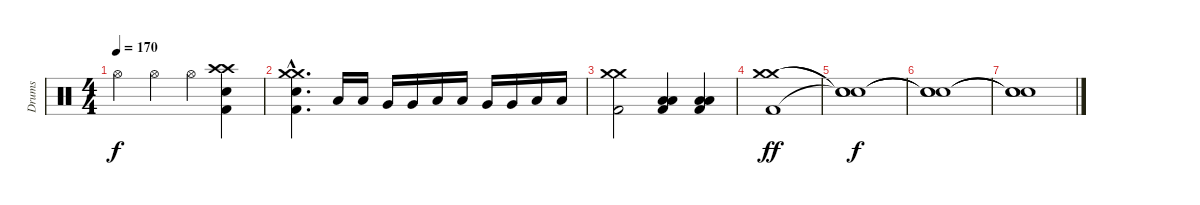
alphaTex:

\track ("Drums" "Drums") {instrument percussion}
\staff {score}
\articulation defaults
\ts (4 4)
\tempo 170
\clef neutral
\ks c "Hi-Hat (open)".4{dy f} "Hi-Hat (open)".4 "Hi-Hat (open)".4
("Crash high (hit)" "Crash high (hit)" "Snare (hit) 2" "Kick (hit) 2").4 |
("Crash medium (hit)"{hac} "Crash medium (hit)"{hac} "Snare (hit) 2"{hac} "Kick (hit) 2"{hac}).4{d} "Low Floor Tom (hit)".16 "Low Floor Tom (hit)".16 "Very Low Tom (hit)".16 "Very Low Tom (hit)".16 "Low Tom (hit)".16 "Low Tom (hit)".16 "Very Low Tom (hit)".16 "Very Low Tom (hit)".16 "Low Floor Tom (hit)".16 "Low Floor Tom (hit)".16 |
("Crash medium (hit)" "Crash medium (hit)" "Kick (hit) 2").2 ("Low Floor Tom (hit)" "Low Floor Tom (hit)" "Kick (hit) 2").4 ("Low Floor Tom (hit)" "Low Floor Tom (hit)" "Kick (hit) 2").4 |
("Crash medium (hit)" "Crash medium (hit)" "Kick (hit) 2").1{dy ff} |
("Snare (hit)"{t} "Snare (hit)"{t} "Snare (hit)"{t}).1{dy f} |
("Snare (hit)"{t} "Snare (hit)"{t} "Snare (hit)"{t}).1 |
("Snare (hit)"{t} "Snare (hit)"{t} "Snare (hit)"{t}).1
